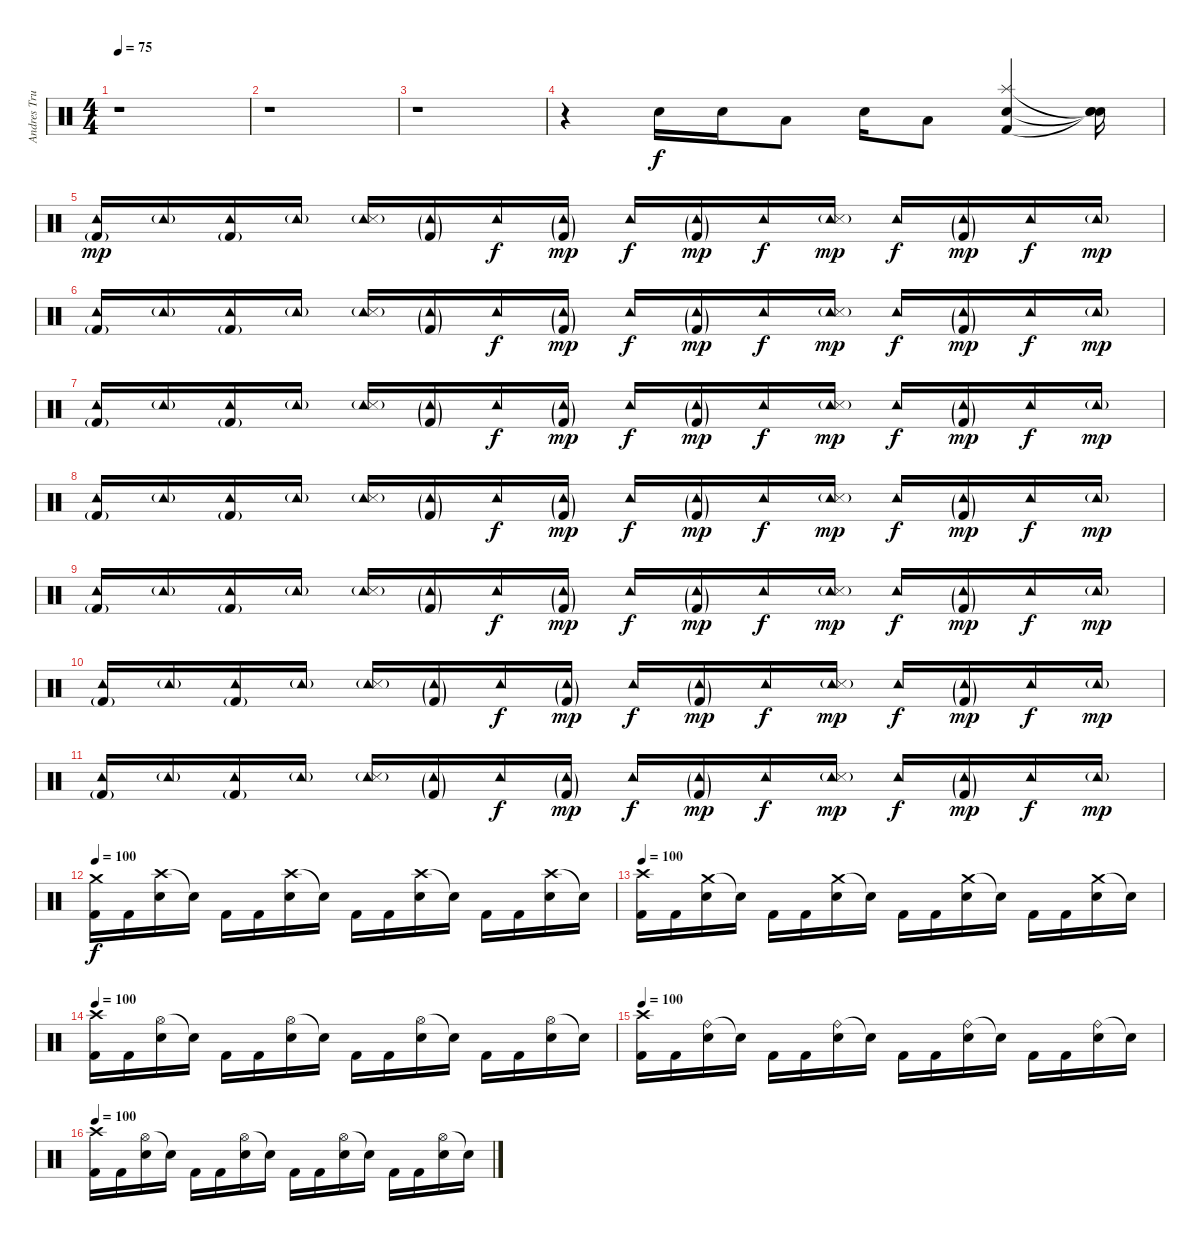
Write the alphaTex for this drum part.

\track ("Andres Trujillo" "Andres Tru") {instrument percussion}
\staff {score}
\articulation defaults
\ts (4 4)
\tempo 75
\clef neutral
\ks c
r.1{dy f} |
r.1 |
r.1 |
r.4 "Electric Snare (hit)".16 "Electric Snare (hit)".16 "Low Tom (hit)".8 "Electric Snare (hit)".16 "Low Tom (hit)".8 ("Splash (hit)" "Electric Snare (hit)" "Kick (hit) 2").4 ("Snare (hit)"{t} "Snare (hit)"{t} "Snare (hit)"{t}).16 |
("Tambourine (hit)" "Kick (hit) 2"{g}).16{dy mp} "Tambourine (hit)"{g}.16 ("Tambourine (hit)" "Kick (hit) 2"{g}).16 "Tambourine (hit)"{g}.16 ("Tambourine (hit)" "Snare (side stick) 3"{g}).16 ("Tambourine (hit)"{g} "Kick (hit) 2"{g}).16 "Tambourine (hit)".16{dy f} ("Tambourine (hit)"{g} "Kick (hit) 2"{g}).16{dy mp} "Tambourine (hit)".16{dy f} ("Tambourine (hit)"{g} "Kick (hit) 2"{g}).16{dy mp} "Tambourine (hit)".16{dy f} ("Tambourine (hit)"{g} "Snare (side stick) 3"{g}).16{dy mp} "Tambourine (hit)".16{dy f} ("Tambourine (hit)"{g} "Kick (hit) 2"{g}).16{dy mp} "Tambourine (hit)".16{dy f} "Tambourine (hit)"{g}.16{dy mp} |
("Tambourine (hit)" "Kick (hit) 2"{g}).16 "Tambourine (hit)"{g}.16 ("Tambourine (hit)" "Kick (hit) 2"{g}).16 "Tambourine (hit)"{g}.16 ("Tambourine (hit)" "Snare (side stick) 3"{g}).16 ("Tambourine (hit)"{g} "Kick (hit) 2"{g}).16 "Tambourine (hit)".16{dy f} ("Tambourine (hit)"{g} "Kick (hit) 2"{g}).16{dy mp} "Tambourine (hit)".16{dy f} ("Tambourine (hit)"{g} "Kick (hit) 2"{g}).16{dy mp} "Tambourine (hit)".16{dy f} ("Tambourine (hit)"{g} "Snare (side stick) 3"{g}).16{dy mp} "Tambourine (hit)".16{dy f} ("Tambourine (hit)"{g} "Kick (hit) 2"{g}).16{dy mp} "Tambourine (hit)".16{dy f} "Tambourine (hit)"{g}.16{dy mp} |
("Tambourine (hit)" "Kick (hit) 2"{g}).16 "Tambourine (hit)"{g}.16 ("Tambourine (hit)" "Kick (hit) 2"{g}).16 "Tambourine (hit)"{g}.16 ("Tambourine (hit)" "Snare (side stick) 3"{g}).16 ("Tambourine (hit)"{g} "Kick (hit) 2"{g}).16 "Tambourine (hit)".16{dy f} ("Tambourine (hit)"{g} "Kick (hit) 2"{g}).16{dy mp} "Tambourine (hit)".16{dy f} ("Tambourine (hit)"{g} "Kick (hit) 2"{g}).16{dy mp} "Tambourine (hit)".16{dy f} ("Tambourine (hit)"{g} "Snare (side stick) 3"{g}).16{dy mp} "Tambourine (hit)".16{dy f} ("Tambourine (hit)"{g} "Kick (hit) 2"{g}).16{dy mp} "Tambourine (hit)".16{dy f} "Tambourine (hit)"{g}.16{dy mp} |
("Tambourine (hit)" "Kick (hit) 2"{g}).16 "Tambourine (hit)"{g}.16 ("Tambourine (hit)" "Kick (hit) 2"{g}).16 "Tambourine (hit)"{g}.16 ("Tambourine (hit)" "Snare (side stick) 3"{g}).16 ("Tambourine (hit)"{g} "Kick (hit) 2"{g}).16 "Tambourine (hit)".16{dy f} ("Tambourine (hit)"{g} "Kick (hit) 2"{g}).16{dy mp} "Tambourine (hit)".16{dy f} ("Tambourine (hit)"{g} "Kick (hit) 2"{g}).16{dy mp} "Tambourine (hit)".16{dy f} ("Tambourine (hit)"{g} "Snare (side stick) 3"{g}).16{dy mp} "Tambourine (hit)".16{dy f} ("Tambourine (hit)"{g} "Kick (hit) 2"{g}).16{dy mp} "Tambourine (hit)".16{dy f} "Tambourine (hit)"{g}.16{dy mp} |
("Tambourine (hit)" "Kick (hit) 2"{g}).16 "Tambourine (hit)"{g}.16 ("Tambourine (hit)" "Kick (hit) 2"{g}).16 "Tambourine (hit)"{g}.16 ("Tambourine (hit)" "Snare (side stick) 3"{g}).16 ("Tambourine (hit)"{g} "Kick (hit) 2"{g}).16 "Tambourine (hit)".16{dy f} ("Tambourine (hit)"{g} "Kick (hit) 2"{g}).16{dy mp} "Tambourine (hit)".16{dy f} ("Tambourine (hit)"{g} "Kick (hit) 2"{g}).16{dy mp} "Tambourine (hit)".16{dy f} ("Tambourine (hit)"{g} "Snare (side stick) 3"{g}).16{dy mp} "Tambourine (hit)".16{dy f} ("Tambourine (hit)"{g} "Kick (hit) 2"{g}).16{dy mp} "Tambourine (hit)".16{dy f} "Tambourine (hit)"{g}.16{dy mp} |
("Tambourine (hit)" "Kick (hit) 2"{g}).16 "Tambourine (hit)"{g}.16 ("Tambourine (hit)" "Kick (hit) 2"{g}).16 "Tambourine (hit)"{g}.16 ("Tambourine (hit)" "Snare (side stick) 3"{g}).16 ("Tambourine (hit)"{g} "Kick (hit) 2"{g}).16 "Tambourine (hit)".16{dy f} ("Tambourine (hit)"{g} "Kick (hit) 2"{g}).16{dy mp} "Tambourine (hit)".16{dy f} ("Tambourine (hit)"{g} "Kick (hit) 2"{g}).16{dy mp} "Tambourine (hit)".16{dy f} ("Tambourine (hit)"{g} "Snare (side stick) 3"{g}).16{dy mp} "Tambourine (hit)".16{dy f} ("Tambourine (hit)"{g} "Kick (hit) 2"{g}).16{dy mp} "Tambourine (hit)".16{dy f} "Tambourine (hit)"{g}.16{dy mp} |
("Tambourine (hit)" "Kick (hit) 2"{g}).16 "Tambourine (hit)"{g}.16 ("Tambourine (hit)" "Kick (hit) 2"{g}).16 "Tambourine (hit)"{g}.16 ("Tambourine (hit)" "Snare (side stick) 3"{g}).16 ("Tambourine (hit)"{g} "Kick (hit) 2"{g}).16 "Tambourine (hit)".16{dy f} ("Tambourine (hit)"{g} "Kick (hit) 2"{g}).16{dy mp} "Tambourine (hit)".16{dy f} ("Tambourine (hit)"{g} "Kick (hit) 2"{g}).16{dy mp} "Tambourine (hit)".16{dy f} ("Tambourine (hit)"{g} "Snare (side stick) 3"{g}).16{dy mp} "Tambourine (hit)".16{dy f} ("Tambourine (hit)"{g} "Kick (hit) 2"{g}).16{dy mp} "Tambourine (hit)".16{dy f} "Tambourine (hit)"{g}.16{dy mp} |
\tempo 100
("Crash medium (hit)" "Kick (hit) 2").16{dy f} "Kick (hit) 2".16 ("Crash high (hit)" "Electric Snare (hit)").16 "Snare (hit)"{t}.16 "Kick (hit) 2".16 "Kick (hit) 2".16 ("Crash high (hit)" "Electric Snare (hit)").16 "Snare (hit)"{t}.16 "Kick (hit) 2".16 "Kick (hit) 2".16 ("Crash high (hit)" "Electric Snare (hit)").16 "Snare (hit)"{t}.16 "Kick (hit) 2".16 "Kick (hit) 2".16 ("Crash high (hit)" "Electric Snare (hit)").16 "Snare (hit)"{t}.16 |
\tempo 100
("Crash high (hit)" "Kick (hit) 2").16 "Kick (hit) 2".16 ("Crash medium (hit)" "Electric Snare (hit)").16 "Snare (hit)"{t}.16 "Kick (hit) 2".16 "Kick (hit) 2".16 ("Crash medium (hit)" "Electric Snare (hit)").16 "Snare (hit)"{t}.16 "Kick (hit) 2".16 "Kick (hit) 2".16 ("Crash medium (hit)" "Electric Snare (hit)").16 "Snare (hit)"{t}.16 "Kick (hit) 2".16 "Kick (hit) 2".16 ("Crash medium (hit)" "Electric Snare (hit)").16 "Snare (hit)"{t}.16 |
\tempo 100
("Crash high (hit)" "Kick (hit) 2").16 "Kick (hit) 2".16 ("Hi-Hat (open)" "Electric Snare (hit)").16 "Snare (hit)"{t}.16 "Kick (hit) 2".16 "Kick (hit) 2".16 ("Hi-Hat (open)" "Electric Snare (hit)").16 "Snare (hit)"{t}.16 "Kick (hit) 2".16 "Kick (hit) 2".16 ("Hi-Hat (open)" "Electric Snare (hit)").16 "Snare (hit)"{t}.16 "Kick (hit) 2".16 "Kick (hit) 2".16 ("Hi-Hat (open)" "Electric Snare (hit)").16 "Snare (hit)"{t}.16 |
\tempo 100
("Crash high (hit)" "Kick (hit) 2").16 "Kick (hit) 2".16 ("Ride (bell)" "Electric Snare (hit)").16 "Snare (hit)"{t}.16 "Kick (hit) 2".16 "Kick (hit) 2".16 ("Ride (bell)" "Electric Snare (hit)").16 "Snare (hit)"{t}.16 "Kick (hit) 2".16 "Kick (hit) 2".16 ("Ride (bell)" "Electric Snare (hit)").16 "Snare (hit)"{t}.16 "Kick (hit) 2".16 "Kick (hit) 2".16 ("Ride (bell)" "Electric Snare (hit)").16 "Snare (hit)"{t}.16 |
\tempo 100
("Crash high (hit)" "Kick (hit) 2").16 "Kick (hit) 2".16 ("Hi-Hat (open)" "Electric Snare (hit)").16 "Snare (hit)"{t}.16 "Kick (hit) 2".16 "Kick (hit) 2".16 ("Hi-Hat (open)" "Electric Snare (hit)").16 "Snare (hit)"{t}.16 "Kick (hit) 2".16 "Kick (hit) 2".16 ("Hi-Hat (open)" "Electric Snare (hit)").16 "Snare (hit)"{t}.16 "Kick (hit) 2".16 "Kick (hit) 2".16 ("Hi-Hat (open)" "Electric Snare (hit)").16 "Snare (hit)"{t}.16
